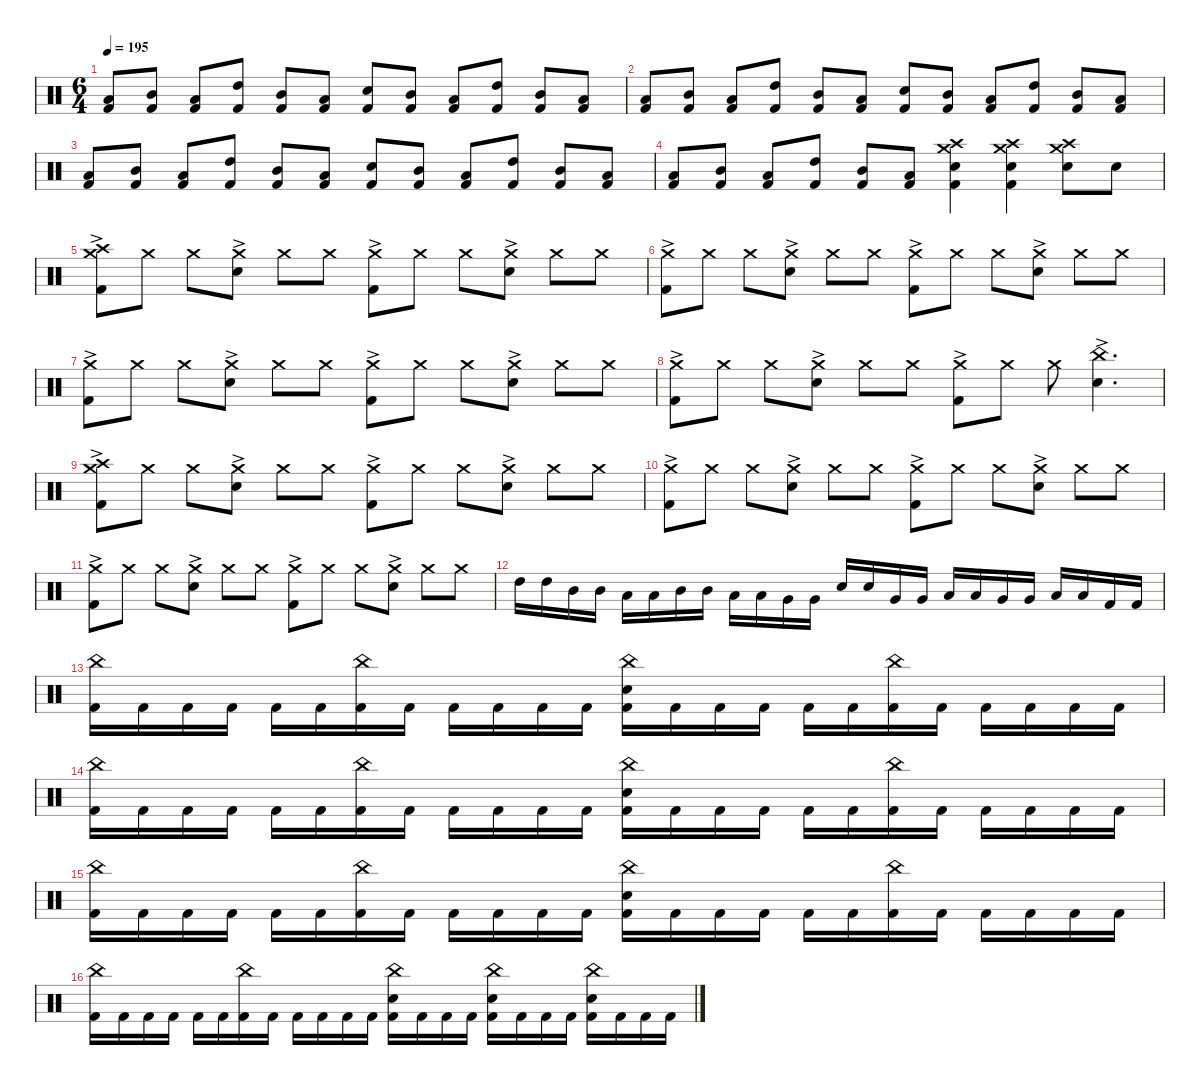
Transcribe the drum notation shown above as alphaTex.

\defaultSystemsLayout 4
\hideDynamics
\bracketExtendMode nobrackets
\singleTrackTrackNamePolicy hidden
\multiTrackTrackNamePolicy hidden
\firstSystemTrackNameMode fullname
\firstSystemTrackNameOrientation horizontal
\otherSystemsTrackNameOrientation horizontal
\track ("Drums" "drm.") {instrument percussion}
\staff {score}
\articulation defaults
\ts (6 4)
\tempo 195
\clef neutral
\ks c
("Low Tom (hit)" "Kick (hit) 2").8{dy f beam Up} ("Mid Tom (hit)" "Kick (hit) 2").8{beam Up} ("Low Tom (hit)" "Kick (hit) 2").8{beam Up} ("High Tom (hit)" "Kick (hit) 2").8{beam Up} ("Mid Tom (hit)" "Kick (hit) 2").8{beam Up} ("Low Tom (hit)" "Kick (hit) 2").8{beam Up} ("Snare (hit) 2" "Kick (hit) 2").8{beam Up} ("Mid Tom (hit)" "Kick (hit) 2").8{beam Up} ("Low Tom (hit)" "Kick (hit) 2").8{beam Up} ("High Tom (hit)" "Kick (hit) 2").8{beam Up} ("Mid Tom (hit)" "Kick (hit) 2").8{beam Up} ("Low Tom (hit)" "Kick (hit) 2").8{beam Up} |
("Low Tom (hit)" "Kick (hit) 2").8{beam Up} ("Mid Tom (hit)" "Kick (hit) 2").8{beam Up} ("Low Tom (hit)" "Kick (hit) 2").8{beam Up} ("High Tom (hit)" "Kick (hit) 2").8{beam Up} ("Mid Tom (hit)" "Kick (hit) 2").8{beam Up} ("Low Tom (hit)" "Kick (hit) 2").8{beam Up} ("Snare (hit) 2" "Kick (hit) 2").8{beam Up} ("Mid Tom (hit)" "Kick (hit) 2").8{beam Up} ("Low Tom (hit)" "Kick (hit) 2").8{beam Up} ("High Tom (hit)" "Kick (hit) 2").8{beam Up} ("Mid Tom (hit)" "Kick (hit) 2").8{beam Up} ("Low Tom (hit)" "Kick (hit) 2").8{beam Up} |
("Low Tom (hit)" "Kick (hit) 2").8{beam Up} ("Mid Tom (hit)" "Kick (hit) 2").8{beam Up} ("Low Tom (hit)" "Kick (hit) 2").8{beam Up} ("High Tom (hit)" "Kick (hit) 2").8{beam Up} ("Mid Tom (hit)" "Kick (hit) 2").8{beam Up} ("Low Tom (hit)" "Kick (hit) 2").8{beam Up} ("Snare (hit) 2" "Kick (hit) 2").8{beam Up} ("Mid Tom (hit)" "Kick (hit) 2").8{beam Up} ("Low Tom (hit)" "Kick (hit) 2").8{beam Up} ("High Tom (hit)" "Kick (hit) 2").8{beam Up} ("Mid Tom (hit)" "Kick (hit) 2").8{beam Up} ("Low Tom (hit)" "Kick (hit) 2").8{beam Up} |
("Low Tom (hit)" "Kick (hit) 2").8{beam Up} ("Mid Tom (hit)" "Kick (hit) 2").8{beam Up} ("Low Tom (hit)" "Kick (hit) 2").8{beam Up} ("High Tom (hit)" "Kick (hit) 2").8{beam Up} ("Mid Tom (hit)" "Kick (hit) 2").8{beam Up} ("Low Tom (hit)" "Kick (hit) 2").8{beam Up} ("Crash high (hit)" "Crash medium (hit)" "Snare (hit) 2" "Kick (hit) 2").4{beam Down} ("Crash high (hit)" "Crash medium (hit)" "Snare (hit) 2" "Kick (hit) 2").4{beam Down} ("Crash high (hit)" "Crash medium (hit)" "Snare (hit) 2").8{beam Down} "Snare (hit) 2".8{beam Down} |
("Crash medium (hit)"{ac} "Crash high (hit)" "Kick (hit) 2").8{dy mf beam Down} "Crash medium (hit)".8{beam Down} "Crash medium (hit)".8{beam Down} ("Crash medium (hit)"{ac} "Snare (hit) 2").8{dy f beam Down} "Crash medium (hit)".8{dy mf beam Down} "Crash medium (hit)".8{beam Down} ("Crash medium (hit)"{ac} "Kick (hit) 2").8{dy f beam Down} "Crash medium (hit)".8{dy mf beam Down} "Crash medium (hit)".8{beam Down} ("Crash medium (hit)"{ac} "Snare (hit) 2").8{dy f beam Down} "Crash medium (hit)".8{dy mf beam Down} "Crash medium (hit)".8{beam Down} |
("Crash medium (hit)"{ac} "Kick (hit) 2").8{dy f beam Down} "Crash medium (hit)".8{dy mf beam Down} "Crash medium (hit)".8{beam Down} ("Crash medium (hit)"{ac} "Snare (hit) 2").8{dy f beam Down} "Crash medium (hit)".8{dy mf beam Down} "Crash medium (hit)".8{beam Down} ("Crash medium (hit)"{ac} "Kick (hit) 2").8{dy f beam Down} "Crash medium (hit)".8{dy mf beam Down} "Crash medium (hit)".8{beam Down} ("Crash medium (hit)"{ac} "Snare (hit) 2").8{dy f beam Down} "Crash medium (hit)".8{dy mf beam Down} "Crash medium (hit)".8{beam Down} |
("Crash medium (hit)"{ac} "Kick (hit) 2").8{dy f beam Down} "Crash medium (hit)".8{dy mf beam Down} "Crash medium (hit)".8{beam Down} ("Crash medium (hit)"{ac} "Snare (hit) 2").8{dy f beam Down} "Crash medium (hit)".8{dy mf beam Down} "Crash medium (hit)".8{beam Down} ("Crash medium (hit)"{ac} "Kick (hit) 2").8{dy f beam Down} "Crash medium (hit)".8{dy mf beam Down} "Crash medium (hit)".8{beam Down} ("Crash medium (hit)"{ac} "Snare (hit) 2").8{dy f beam Down} "Crash medium (hit)".8{dy mf beam Down} "Crash medium (hit)".8{beam Down} |
("Crash medium (hit)"{ac} "Kick (hit) 2").8{dy f beam Down} "Crash medium (hit)".8{dy mf beam Down} "Crash medium (hit)".8{beam Down} ("Crash medium (hit)"{ac} "Snare (hit) 2").8{dy f beam Down} "Crash medium (hit)".8{dy mf beam Down} "Crash medium (hit)".8{beam Down} ("Crash medium (hit)"{ac} "Kick (hit) 2").8{dy f beam Down} "Crash medium (hit)".8{dy mf beam Down} "Crash medium (hit)".8{beam Down} ("China (hit)"{ac} "Snare (hit) 2").4{d dy f beam Down} |
("Crash medium (hit)"{ac} "Crash high (hit)" "Kick (hit) 2").8{dy mf beam Down} "Crash medium (hit)".8{beam Down} "Crash medium (hit)".8{beam Down} ("Crash medium (hit)"{ac} "Snare (hit) 2").8{dy f beam Down} "Crash medium (hit)".8{dy mf beam Down} "Crash medium (hit)".8{beam Down} ("Crash medium (hit)"{ac} "Kick (hit) 2").8{dy f beam Down} "Crash medium (hit)".8{dy mf beam Down} "Crash medium (hit)".8{beam Down} ("Crash medium (hit)"{ac} "Snare (hit) 2").8{dy f beam Down} "Crash medium (hit)".8{dy mf beam Down} "Crash medium (hit)".8{beam Down} |
("Crash medium (hit)"{ac} "Kick (hit) 2").8{dy f beam Down} "Crash medium (hit)".8{dy mf beam Down} "Crash medium (hit)".8{beam Down} ("Crash medium (hit)"{ac} "Snare (hit) 2").8{dy f beam Down} "Crash medium (hit)".8{dy mf beam Down} "Crash medium (hit)".8{beam Down} ("Crash medium (hit)"{ac} "Kick (hit) 2").8{dy f beam Down} "Crash medium (hit)".8{dy mf beam Down} "Crash medium (hit)".8{beam Down} ("Crash medium (hit)"{ac} "Snare (hit) 2").8{dy f beam Down} "Crash medium (hit)".8{dy mf beam Down} "Crash medium (hit)".8{beam Down} |
("Crash medium (hit)"{ac} "Kick (hit) 2").8{dy f beam Down} "Crash medium (hit)".8{dy mf beam Down} "Crash medium (hit)".8{beam Down} ("Crash medium (hit)"{ac} "Snare (hit) 2").8{dy f beam Down} "Crash medium (hit)".8{dy mf beam Down} "Crash medium (hit)".8{beam Down} ("Crash medium (hit)"{ac} "Kick (hit) 2").8{dy f beam Down} "Crash medium (hit)".8{dy mf beam Down} "Crash medium (hit)".8{beam Down} ("Crash medium (hit)"{ac} "Snare (hit) 2").8{dy f beam Down} "Crash medium (hit)".8{dy mf beam Down} "Crash medium (hit)".8{beam Down} |
"High Tom (hit)".16{dy fff beam Down} "High Tom (hit)".16{beam Down} "Mid Tom (hit)".16{beam Down} "Mid Tom (hit)".16{beam Down} "Low Tom (hit)".16{beam Down} "Low Tom (hit)".16{beam Down} "Mid Tom (hit)".16{beam Down} "Mid Tom (hit)".16{beam Down} "Low Tom (hit)".16{beam Down} "Low Tom (hit)".16{beam Down} "Very Low Tom (hit)".16{beam Down} "Very Low Tom (hit)".16{beam Down} "Snare (hit) 2".16{beam Up} "Snare (hit) 2".16{beam Up} "Very Low Tom (hit)".16{beam Up} "Very Low Tom (hit)".16{beam Up} "Low Floor Tom (hit)".16{beam Up} "Low Floor Tom (hit)".16{beam Up} "Very Low Tom (hit)".16{beam Up} "Very Low Tom (hit)".16{beam Up} "Low Floor Tom (hit)".16{beam Up} "Low Floor Tom (hit)".16{beam Up} "Kick (hit) 2".16{beam Up} "Kick (hit) 2".16{beam Up} |
("China (hit)" "Kick (hit) 2").16{dy f beam Down} "Kick (hit) 2".16{beam Down} "Kick (hit) 2".16{beam Down} "Kick (hit) 2".16{beam Down} "Kick (hit) 2".16{beam Down} "Kick (hit) 2".16{beam Down} ("China (hit)" "Kick (hit) 2").16{beam Down} "Kick (hit) 2".16{beam Down} "Kick (hit) 2".16{beam Down} "Kick (hit) 2".16{beam Down} "Kick (hit) 2".16{beam Down} "Kick (hit) 2".16{beam Down} ("China (hit)" "Snare (hit) 2" "Kick (hit) 2").16{beam Down} "Kick (hit) 2".16{beam Down} "Kick (hit) 2".16{beam Down} "Kick (hit) 2".16{beam Down} "Kick (hit) 2".16{beam Down} "Kick (hit) 2".16{beam Down} ("China (hit)" "Kick (hit) 2").16{beam Down} "Kick (hit) 2".16{beam Down} "Kick (hit) 2".16{beam Down} "Kick (hit) 2".16{beam Down} "Kick (hit) 2".16{beam Down} "Kick (hit) 2".16{beam Down} |
("China (hit)" "Kick (hit) 2").16{beam Down} "Kick (hit) 2".16{beam Down} "Kick (hit) 2".16{beam Down} "Kick (hit) 2".16{beam Down} "Kick (hit) 2".16{beam Down} "Kick (hit) 2".16{beam Down} ("China (hit)" "Kick (hit) 2").16{beam Down} "Kick (hit) 2".16{beam Down} "Kick (hit) 2".16{beam Down} "Kick (hit) 2".16{beam Down} "Kick (hit) 2".16{beam Down} "Kick (hit) 2".16{beam Down} ("China (hit)" "Snare (hit) 2" "Kick (hit) 2").16{beam Down} "Kick (hit) 2".16{beam Down} "Kick (hit) 2".16{beam Down} "Kick (hit) 2".16{beam Down} "Kick (hit) 2".16{beam Down} "Kick (hit) 2".16{beam Down} ("China (hit)" "Kick (hit) 2").16{beam Down} "Kick (hit) 2".16{beam Down} "Kick (hit) 2".16{beam Down} "Kick (hit) 2".16{beam Down} "Kick (hit) 2".16{beam Down} "Kick (hit) 2".16{beam Down} |
("China (hit)" "Kick (hit) 2").16{beam Down} "Kick (hit) 2".16{beam Down} "Kick (hit) 2".16{beam Down} "Kick (hit) 2".16{beam Down} "Kick (hit) 2".16{beam Down} "Kick (hit) 2".16{beam Down} ("China (hit)" "Kick (hit) 2").16{beam Down} "Kick (hit) 2".16{beam Down} "Kick (hit) 2".16{beam Down} "Kick (hit) 2".16{beam Down} "Kick (hit) 2".16{beam Down} "Kick (hit) 2".16{beam Down} ("China (hit)" "Snare (hit) 2" "Kick (hit) 2").16{beam Down} "Kick (hit) 2".16{beam Down} "Kick (hit) 2".16{beam Down} "Kick (hit) 2".16{beam Down} "Kick (hit) 2".16{beam Down} "Kick (hit) 2".16{beam Down} ("China (hit)" "Kick (hit) 2").16{beam Down} "Kick (hit) 2".16{beam Down} "Kick (hit) 2".16{beam Down} "Kick (hit) 2".16{beam Down} "Kick (hit) 2".16{beam Down} "Kick (hit) 2".16{beam Down} |
("China (hit)" "Kick (hit) 2").16{beam Down} "Kick (hit) 2".16{beam Down} "Kick (hit) 2".16{beam Down} "Kick (hit) 2".16{beam Down} "Kick (hit) 2".16{beam Down} "Kick (hit) 2".16{beam Down} ("China (hit)" "Kick (hit) 2").16{beam Down} "Kick (hit) 2".16{beam Down} "Kick (hit) 2".16{beam Down} "Kick (hit) 2".16{beam Down} "Kick (hit) 2".16{beam Down} "Kick (hit) 2".16{beam Down} ("China (hit)" "Snare (hit) 2" "Kick (hit) 2").16{beam Down} "Kick (hit) 2".16{beam Down} "Kick (hit) 2".16{beam Down} "Kick (hit) 2".16{beam Down} ("China (hit)" "Snare (hit) 2" "Kick (hit) 2").16{beam Down} "Kick (hit) 2".16{beam Down} "Kick (hit) 2".16{beam Down} "Kick (hit) 2".16{beam Down} ("China (hit)" "Snare (hit) 2" "Kick (hit) 2").16{beam Down} "Kick (hit) 2".16{beam Down} "Kick (hit) 2".16{beam Down} "Kick (hit) 2".16{beam Down}
